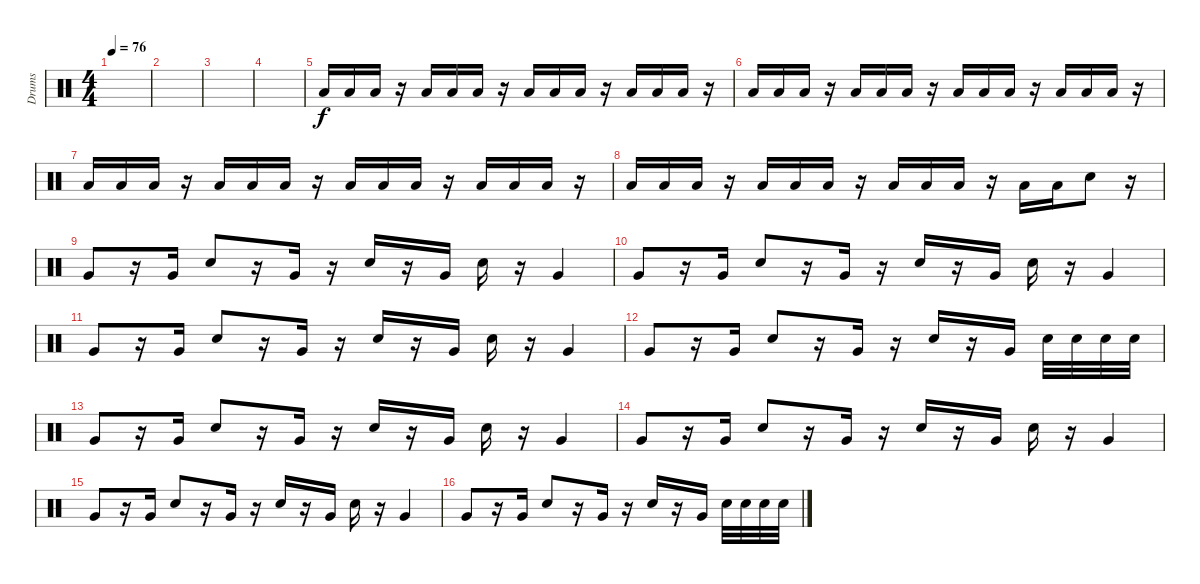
\track ("Drumkit" "Drums") {instrument percussion}
\staff {score}
\articulation defaults
\ts (4 4)
\tempo 76
\clef neutral
\ks c
|
|
|
|
"Low Tom (hit)".16 "Low Tom (hit)".16 "Low Tom (hit)".16 r.16 "Low Tom (hit)".16 "Low Tom (hit)".16 "Low Tom (hit)".16 r.16 "Low Tom (hit)".16 "Low Tom (hit)".16 "Low Tom (hit)".16 r.16 "Low Tom (hit)".16 "Low Tom (hit)".16 "Low Tom (hit)".16 r.16 |
"Low Tom (hit)".16 "Low Tom (hit)".16 "Low Tom (hit)".16 r.16 "Low Tom (hit)".16 "Low Tom (hit)".16 "Low Tom (hit)".16 r.16 "Low Tom (hit)".16 "Low Tom (hit)".16 "Low Tom (hit)".16 r.16 "Low Tom (hit)".16 "Low Tom (hit)".16 "Low Tom (hit)".16 r.16 |
"Low Tom (hit)".16 "Low Tom (hit)".16 "Low Tom (hit)".16 r.16 "Low Tom (hit)".16 "Low Tom (hit)".16 "Low Tom (hit)".16 r.16 "Low Tom (hit)".16 "Low Tom (hit)".16 "Low Tom (hit)".16 r.16 "Low Tom (hit)".16 "Low Tom (hit)".16 "Low Tom (hit)".16 r.16 |
"Low Tom (hit)".16 "Low Tom (hit)".16 "Low Tom (hit)".16 r.16 "Low Tom (hit)".16 "Low Tom (hit)".16 "Low Tom (hit)".16 r.16 "Low Tom (hit)".16 "Low Tom (hit)".16 "Low Tom (hit)".16 r.16 "Low Tom (hit)".16 "Low Tom (hit)".16 "Snare (hit) 2".8 r.16 |
"Very Low Tom (hit)".8 r.16 "Very Low Tom (hit)".16 "Snare (hit) 2".8 r.16 "Very Low Tom (hit)".16 r.16 "Snare (hit) 2".16 r.16 "Very Low Tom (hit)".16 "Snare (hit) 2".16 r.16 "Very Low Tom (hit)".4 |
"Very Low Tom (hit)".8 r.16 "Very Low Tom (hit)".16 "Snare (hit) 2".8 r.16 "Very Low Tom (hit)".16 r.16 "Snare (hit) 2".16 r.16 "Very Low Tom (hit)".16 "Snare (hit) 2".16 r.16 "Very Low Tom (hit)".4 |
"Very Low Tom (hit)".8 r.16 "Very Low Tom (hit)".16 "Snare (hit) 2".8 r.16 "Very Low Tom (hit)".16 r.16 "Snare (hit) 2".16 r.16 "Very Low Tom (hit)".16 "Snare (hit) 2".16 r.16 "Very Low Tom (hit)".4 |
"Very Low Tom (hit)".8 r.16 "Very Low Tom (hit)".16 "Snare (hit) 2".8 r.16 "Very Low Tom (hit)".16 r.16 "Snare (hit) 2".16 r.16 "Very Low Tom (hit)".16 "Snare (hit) 2".32 "Snare (hit) 2".32 "Snare (hit) 2".32 "Snare (hit) 2".32 |
"Very Low Tom (hit)".8 r.16 "Very Low Tom (hit)".16 "Snare (hit) 2".8 r.16 "Very Low Tom (hit)".16 r.16 "Snare (hit) 2".16 r.16 "Very Low Tom (hit)".16 "Snare (hit) 2".16 r.16 "Very Low Tom (hit)".4 |
"Very Low Tom (hit)".8 r.16 "Very Low Tom (hit)".16 "Snare (hit) 2".8 r.16 "Very Low Tom (hit)".16 r.16 "Snare (hit) 2".16 r.16 "Very Low Tom (hit)".16 "Snare (hit) 2".16 r.16 "Very Low Tom (hit)".4 |
"Very Low Tom (hit)".8 r.16 "Very Low Tom (hit)".16 "Snare (hit) 2".8 r.16 "Very Low Tom (hit)".16 r.16 "Snare (hit) 2".16 r.16 "Very Low Tom (hit)".16 "Snare (hit) 2".16 r.16 "Very Low Tom (hit)".4 |
"Very Low Tom (hit)".8 r.16 "Very Low Tom (hit)".16 "Snare (hit) 2".8 r.16 "Very Low Tom (hit)".16 r.16 "Snare (hit) 2".16 r.16 "Very Low Tom (hit)".16 "Snare (hit) 2".32 "Snare (hit) 2".32 "Snare (hit) 2".32 "Snare (hit) 2".32
